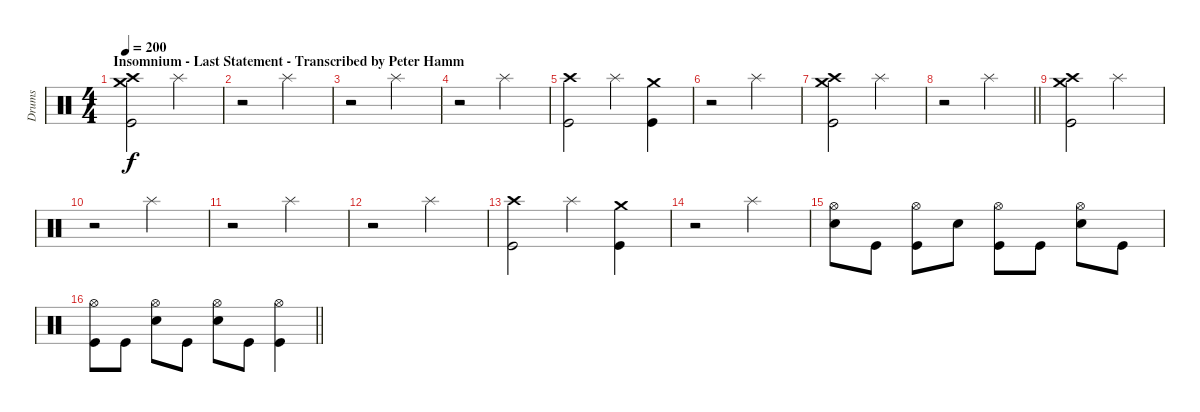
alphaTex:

\track ("Drums" "Drums") {instrument percussion}
\staff {score}
\articulation defaults
\ts (4 4)
\section ("" "Insomnium - Last Statement - Transcribed by Peter Hamm")
\tempo 200
\clef neutral
\ks c
("Crash medium (hit)" "Crash high (hit)" "Kick (hit)").2{dy f} "Splash (hit)".2 |
r.2 "Splash (hit)".2 |
r.2 "Splash (hit)".2 |
r.2 "Splash (hit)".2 |
("Crash high (hit)" "Kick (hit)").2 "Splash (hit)".4 ("Crash medium (hit)" "Kick (hit)").4 |
r.2 "Splash (hit)".2 |
("Crash medium (hit)" "Crash high (hit)" "Kick (hit)").2 "Splash (hit)".2 |
\barLineRight lightlight
r.2 "Splash (hit)".2 |
("Crash medium (hit)" "Crash high (hit)" "Kick (hit)").2 "Splash (hit)".2 |
r.2 "Splash (hit)".2 |
r.2 "Splash (hit)".2 |
r.2 "Splash (hit)".2 |
("Crash high (hit)" "Kick (hit)").2 "Splash (hit)".4 ("Crash medium (hit)" "Kick (hit)").4 |
r.2 "Splash (hit)".2 |
("Hi-Hat (open)" "Snare (hit) 2").8 "Kick (hit)".8 ("Hi-Hat (open)" "Kick (hit)").8 "Snare (hit) 2".8 ("Hi-Hat (open)" "Kick (hit)").8 "Kick (hit)".8 ("Hi-Hat (open)" "Snare (hit) 2").8 "Kick (hit)".8 |
\barLineRight lightlight
("Hi-Hat (open)" "Kick (hit)").8 "Kick (hit)".8 ("Hi-Hat (open)" "Snare (hit) 2").8 "Kick (hit)".8 ("Hi-Hat (open)" "Snare (hit) 2").8 "Kick (hit)".8 ("Hi-Hat (open)" "Kick (hit)").4
